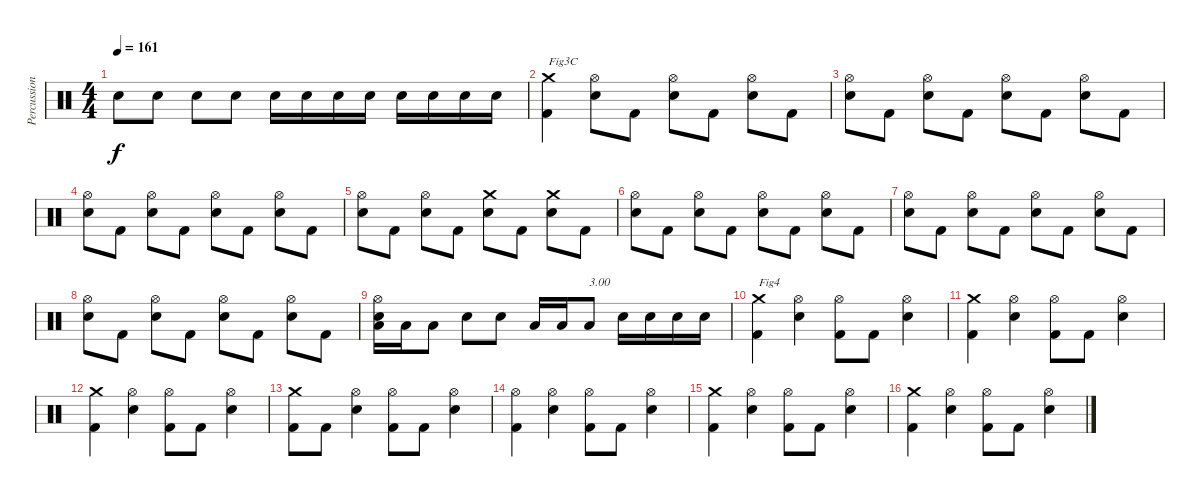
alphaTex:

\track ("Percussions" "Percussion") {instrument percussion}
\staff {score}
\articulation defaults
\ts (4 4)
\tempo 161
\clef neutral
\ks c "Electric Snare (hit)".8{dy f} "Electric Snare (hit)".8 "Electric Snare (hit)".8 "Electric Snare (hit)".8 "Electric Snare (hit)".16 "Electric Snare (hit)".16 "Electric Snare (hit)".16 "Electric Snare (hit)".16 "Electric Snare (hit)".16 "Electric Snare (hit)".16 "Electric Snare (hit)".16 "Electric Snare (hit)".16
|
("Kick (hit) 2" "Crash medium (hit)").4{txt "Fig3C"} ("Electric Snare (hit)" "Hi-Hat (open)").8 "Kick (hit) 2".8 ("Electric Snare (hit)" "Hi-Hat (open)").8 "Kick (hit) 2".8 ("Electric Snare (hit)" "Hi-Hat (open)").8 "Kick (hit) 2".8 |
("Electric Snare (hit)" "Hi-Hat (open)").8 "Kick (hit) 2".8 ("Electric Snare (hit)" "Hi-Hat (open)").8 "Kick (hit) 2".8 ("Electric Snare (hit)" "Hi-Hat (open)").8 "Kick (hit) 2".8 ("Electric Snare (hit)" "Hi-Hat (open)").8 "Kick (hit) 2".8 |
("Electric Snare (hit)" "Hi-Hat (open)").8 "Kick (hit) 2".8 ("Electric Snare (hit)" "Hi-Hat (open)").8 "Kick (hit) 2".8 ("Electric Snare (hit)" "Hi-Hat (open)").8 "Kick (hit) 2".8 ("Electric Snare (hit)" "Hi-Hat (open)").8 "Kick (hit) 2".8 |
("Electric Snare (hit)" "Hi-Hat (open)").8 "Kick (hit) 2".8 ("Electric Snare (hit)" "Hi-Hat (open)").8 "Kick (hit) 2".8 ("Electric Snare (hit)" "Crash medium (hit)").8 "Kick (hit) 2".8 ("Electric Snare (hit)" "Crash medium (hit)").8 "Kick (hit) 2".8 |
("Electric Snare (hit)" "Hi-Hat (open)").8 "Kick (hit) 2".8 ("Electric Snare (hit)" "Hi-Hat (open)").8 "Kick (hit) 2".8 ("Electric Snare (hit)" "Hi-Hat (open)").8 "Kick (hit) 2".8 ("Electric Snare (hit)" "Hi-Hat (open)").8 "Kick (hit) 2".8 |
("Electric Snare (hit)" "Hi-Hat (open)").8 "Kick (hit) 2".8 ("Electric Snare (hit)" "Hi-Hat (open)").8 "Kick (hit) 2".8 ("Electric Snare (hit)" "Hi-Hat (open)").8 "Kick (hit) 2".8 ("Electric Snare (hit)" "Hi-Hat (open)").8 "Kick (hit) 2".8 |
("Electric Snare (hit)" "Hi-Hat (open)").8 "Kick (hit) 2".8 ("Electric Snare (hit)" "Hi-Hat (open)").8 "Kick (hit) 2".8 ("Electric Snare (hit)" "Hi-Hat (open)").8 "Kick (hit) 2".8 ("Electric Snare (hit)" "Hi-Hat (open)").8 "Kick (hit) 2".8 |
("Low Floor Tom (hit)" "Electric Snare (hit)" "Hi-Hat (open)").16 "Low Floor Tom (hit)".16 "Low Floor Tom (hit)".8 "Electric Snare (hit)".8 "Electric Snare (hit)".8 "Low Floor Tom (hit)".16 "Low Floor Tom (hit)".16 "Low Floor Tom (hit)".8{txt "3.00"} "Electric Snare (hit)".16 "Electric Snare (hit)".16 "Electric Snare (hit)".16 "Electric Snare (hit)".16 |
("Kick (hit) 2" "Crash medium (hit)").4{txt "Fig4"} ("Electric Snare (hit)" "Hi-Hat (open)").4 ("Kick (hit) 2" "Hi-Hat (open)").8 "Kick (hit) 2".8 ("Electric Snare (hit)" "Hi-Hat (open)").4 |
("Kick (hit) 2" "Crash medium (hit)").4 ("Electric Snare (hit)" "Hi-Hat (open)").4 ("Kick (hit) 2" "Hi-Hat (open)").8 "Kick (hit) 2".8 ("Electric Snare (hit)" "Hi-Hat (open)").4 |
("Kick (hit) 2" "Crash medium (hit)").4 ("Electric Snare (hit)" "Hi-Hat (open)").4 ("Kick (hit) 2" "Hi-Hat (open)").8 "Kick (hit) 2".8 ("Electric Snare (hit)" "Hi-Hat (open)").4 |
("Kick (hit) 2" "Crash medium (hit)").8 "Kick (hit) 2".8 ("Electric Snare (hit)" "Hi-Hat (open)").4 ("Kick (hit) 2" "Hi-Hat (open)").8 "Kick (hit) 2".8 ("Electric Snare (hit)" "Hi-Hat (open)").4 |
("Kick (hit) 2" "Hi-Hat (open)").4 ("Electric Snare (hit)" "Hi-Hat (open)").4 ("Kick (hit) 2" "Hi-Hat (open)").8 "Kick (hit) 2".8 ("Electric Snare (hit)" "Hi-Hat (open)").4 |
("Kick (hit) 2" "Crash medium (hit)").4 ("Electric Snare (hit)" "Hi-Hat (open)").4 ("Kick (hit) 2" "Hi-Hat (open)").8 "Kick (hit) 2".8 ("Electric Snare (hit)" "Hi-Hat (open)").4 |
("Kick (hit) 2" "Crash medium (hit)").4 ("Electric Snare (hit)" "Hi-Hat (open)").4 ("Kick (hit) 2" "Hi-Hat (open)").8 "Kick (hit) 2".8 ("Electric Snare (hit)" "Hi-Hat (open)").4
